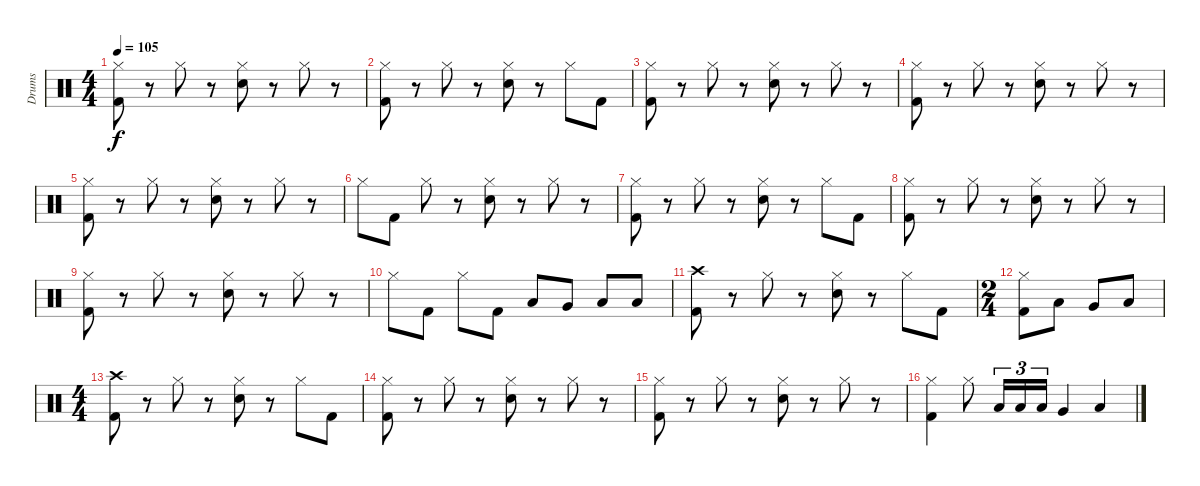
\track ("Drums" "Drums") {instrument percussion}
\staff {score}
\articulation defaults
\ts (4 4)
\tempo 105
\clef neutral
\ks c
("Hi-Hat (closed)" "Kick (hit) 2").8{dy f} r.8 "Hi-Hat (closed)".8 r.8 ("Hi-Hat (closed)" "Snare (hit) 2").8 r.8 "Hi-Hat (closed)".8 r.8 |
("Hi-Hat (closed)" "Kick (hit) 2").8 r.8 "Hi-Hat (closed)".8 r.8 ("Hi-Hat (closed)" "Snare (hit) 2").8 r.8 "Hi-Hat (closed)".8 "Kick (hit) 2".8 |
("Hi-Hat (closed)" "Kick (hit) 2").8 r.8 "Hi-Hat (closed)".8 r.8 ("Hi-Hat (closed)" "Snare (hit) 2").8 r.8 "Hi-Hat (closed)".8 r.8 |
("Hi-Hat (closed)" "Kick (hit) 2").8 r.8 "Hi-Hat (closed)".8 r.8 ("Hi-Hat (closed)" "Snare (hit) 2").8 r.8 "Hi-Hat (closed)".8 r.8 |
("Hi-Hat (closed)" "Kick (hit) 2").8 r.8 "Hi-Hat (closed)".8 r.8 ("Hi-Hat (closed)" "Snare (hit) 2").8 r.8 "Hi-Hat (closed)".8 r.8 |
"Hi-Hat (closed)".8 "Kick (hit) 2".8 "Hi-Hat (closed)".8 r.8 ("Hi-Hat (closed)" "Snare (hit) 2").8 r.8 "Hi-Hat (closed)".8 r.8 |
("Hi-Hat (closed)" "Kick (hit) 2").8 r.8 "Hi-Hat (closed)".8 r.8 ("Hi-Hat (closed)" "Snare (hit) 2").8 r.8 "Hi-Hat (closed)".8 "Kick (hit) 2".8 |
("Hi-Hat (closed)" "Kick (hit) 2").8 r.8 "Hi-Hat (closed)".8 r.8 ("Hi-Hat (closed)" "Snare (hit) 2").8 r.8 "Hi-Hat (closed)".8 r.8 |
("Hi-Hat (closed)" "Kick (hit) 2").8 r.8 "Hi-Hat (closed)".8 r.8 ("Hi-Hat (closed)" "Snare (hit) 2").8 r.8 "Hi-Hat (closed)".8 r.8 |
"Hi-Hat (closed)".8 "Kick (hit) 2".8 "Hi-Hat (closed)".8 "Kick (hit) 2".8 "Low Tom (hit)".8 "Very Low Tom (hit)".8 "Low Floor Tom (hit)".8 "Low Floor Tom (hit)".8 |
("Crash high (hit)" "Kick (hit) 2").8 r.8 "Hi-Hat (closed)".8 r.8 ("Hi-Hat (closed)" "Snare (hit) 2").8 r.8 "Hi-Hat (closed)".8 "Kick (hit) 2".8 |
\ts (2 4)
("Hi-Hat (closed)" "Kick (hit) 2").8 "Low Tom (hit)".8 "Very Low Tom (hit)".8 "Low Floor Tom (hit)".8 |
\ts (4 4)
("Crash high (hit)" "Kick (hit) 2").8 r.8 "Hi-Hat (closed)".8 r.8 ("Hi-Hat (closed)" "Snare (hit) 2").8 r.8 "Hi-Hat (closed)".8 "Kick (hit) 2".8 |
("Hi-Hat (closed)" "Kick (hit) 2").8 r.8 "Hi-Hat (closed)".8 r.8 ("Hi-Hat (closed)" "Snare (hit) 2").8 r.8 "Hi-Hat (closed)".8 r.8 |
("Hi-Hat (closed)" "Kick (hit) 2").8 r.8 "Hi-Hat (closed)".8 r.8 ("Hi-Hat (closed)" "Snare (hit) 2").8 r.8 "Hi-Hat (closed)".8 r.8 |
("Hi-Hat (closed)" "Kick (hit) 2").4 "Hi-Hat (closed)".8 "Low Floor Tom (hit)".16{tu (3 2)} "Low Floor Tom (hit)".16{tu (3 2)} "Low Floor Tom (hit)".16{tu (3 2)} "Very Low Tom (hit)".4 "Low Floor Tom (hit)".4
